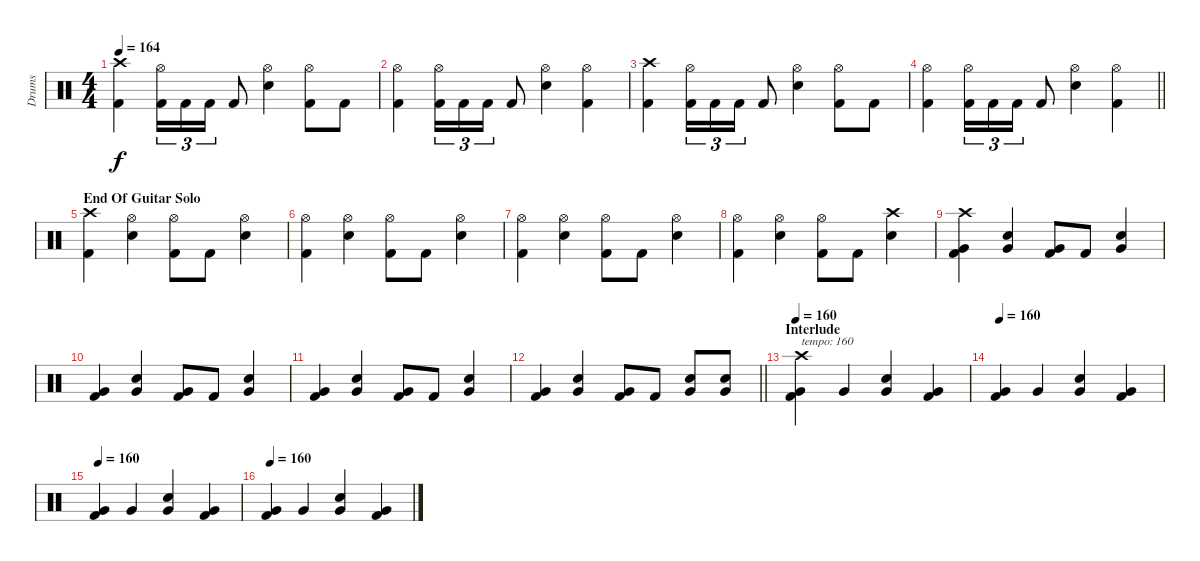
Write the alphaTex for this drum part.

\track ("Drums" "Drums") {instrument percussion}
\staff {score}
\articulation defaults
\ts (4 4)
\tempo 164
\clef neutral
\ks c
("Crash high (hit)" "Kick (hit) 2").4{dy f} ("Hi-Hat (open)" "Kick (hit) 2").16{tu (3 2)} "Kick (hit) 2".16{tu (3 2)} "Kick (hit) 2".16{tu (3 2)} "Kick (hit) 2".8 ("Hi-Hat (open)" "Snare (hit) 2").4 ("Hi-Hat (open)" "Kick (hit) 2").8 "Kick (hit) 2".8 |
("Hi-Hat (open)" "Kick (hit) 2").4 ("Hi-Hat (open)" "Kick (hit) 2").16{tu (3 2)} "Kick (hit) 2".16{tu (3 2)} "Kick (hit) 2".16{tu (3 2)} "Kick (hit) 2".8 ("Hi-Hat (open)" "Snare (hit) 2").4 ("Hi-Hat (open)" "Kick (hit) 2").4 |
("Crash high (hit)" "Kick (hit) 2").4 ("Hi-Hat (open)" "Kick (hit) 2").16{tu (3 2)} "Kick (hit) 2".16{tu (3 2)} "Kick (hit) 2".16{tu (3 2)} "Kick (hit) 2".8 ("Hi-Hat (open)" "Snare (hit) 2").4 ("Hi-Hat (open)" "Kick (hit) 2").8 "Kick (hit) 2".8 |
\barLineRight lightlight
("Hi-Hat (open)" "Kick (hit) 2").4 ("Hi-Hat (open)" "Kick (hit) 2").16{tu (3 2)} "Kick (hit) 2".16{tu (3 2)} "Kick (hit) 2".16{tu (3 2)} "Kick (hit) 2".8 ("Hi-Hat (open)" "Snare (hit) 2").4 ("Hi-Hat (open)" "Kick (hit) 2").4 |
\section ("" "End Of Guitar Solo")
("Crash high (hit)" "Kick (hit) 2").4 ("Hi-Hat (open)" "Snare (hit) 2").4 ("Hi-Hat (open)" "Kick (hit) 2").8 "Kick (hit) 2".8 ("Hi-Hat (open)" "Snare (hit) 2").4 |
("Hi-Hat (open)" "Kick (hit) 2").4 ("Hi-Hat (open)" "Snare (hit) 2").4 ("Hi-Hat (open)" "Kick (hit) 2").8 "Kick (hit) 2".8 ("Hi-Hat (open)" "Snare (hit) 2").4 |
("Hi-Hat (open)" "Kick (hit) 2").4 ("Hi-Hat (open)" "Snare (hit) 2").4 ("Hi-Hat (open)" "Kick (hit) 2").8 "Kick (hit) 2".8 ("Hi-Hat (open)" "Snare (hit) 2").4 |
("Hi-Hat (open)" "Kick (hit) 2").4 ("Hi-Hat (open)" "Snare (hit) 2").4 ("Hi-Hat (open)" "Kick (hit) 2").8 "Kick (hit) 2".8 ("Crash high (hit)" "Snare (hit) 2").4 |
("Crash high (hit)" "Very Low Tom (hit)" "Kick (hit) 2").4 ("Very Low Tom (hit)" "Snare (hit) 2").4 ("Very Low Tom (hit)" "Kick (hit) 2").8 "Kick (hit) 2".8 ("Very Low Tom (hit)" "Snare (hit) 2").4 |
("Very Low Tom (hit)" "Kick (hit) 2").4 ("Very Low Tom (hit)" "Snare (hit) 2").4 ("Very Low Tom (hit)" "Kick (hit) 2").8 "Kick (hit) 2".8 ("Very Low Tom (hit)" "Snare (hit) 2").4 |
("Very Low Tom (hit)" "Kick (hit) 2").4 ("Very Low Tom (hit)" "Snare (hit) 2").4 ("Very Low Tom (hit)" "Kick (hit) 2").8 "Kick (hit) 2".8 ("Very Low Tom (hit)" "Snare (hit) 2").4 |
\barLineRight lightlight
("Very Low Tom (hit)" "Kick (hit) 2").4 ("Very Low Tom (hit)" "Snare (hit) 2").4 ("Very Low Tom (hit)" "Kick (hit) 2").8 "Kick (hit) 2".8 ("Very Low Tom (hit)" "Snare (hit) 2").8 ("Very Low Tom (hit)" "Snare (hit) 2").8 |
\section ("" "Interlude ")
\tempo 160
("Crash high (hit)" "Very Low Tom (hit)" "Kick (hit) 2").4{txt "tempo: 160"} "Very Low Tom (hit)".4 ("Very Low Tom (hit)" "Snare (hit) 2").4 ("Very Low Tom (hit)" "Kick (hit) 2").4 |
\tempo 160
("Very Low Tom (hit)" "Kick (hit) 2").4 "Very Low Tom (hit)".4 ("Very Low Tom (hit)" "Snare (hit) 2").4 ("Very Low Tom (hit)" "Kick (hit) 2").4 |
\tempo 160
("Very Low Tom (hit)" "Kick (hit) 2").4 "Very Low Tom (hit)".4 ("Very Low Tom (hit)" "Snare (hit) 2").4 ("Very Low Tom (hit)" "Kick (hit) 2").4 |
\tempo 160
("Very Low Tom (hit)" "Kick (hit) 2").4 "Very Low Tom (hit)".4 ("Very Low Tom (hit)" "Snare (hit) 2").4 ("Very Low Tom (hit)" "Kick (hit) 2").4
